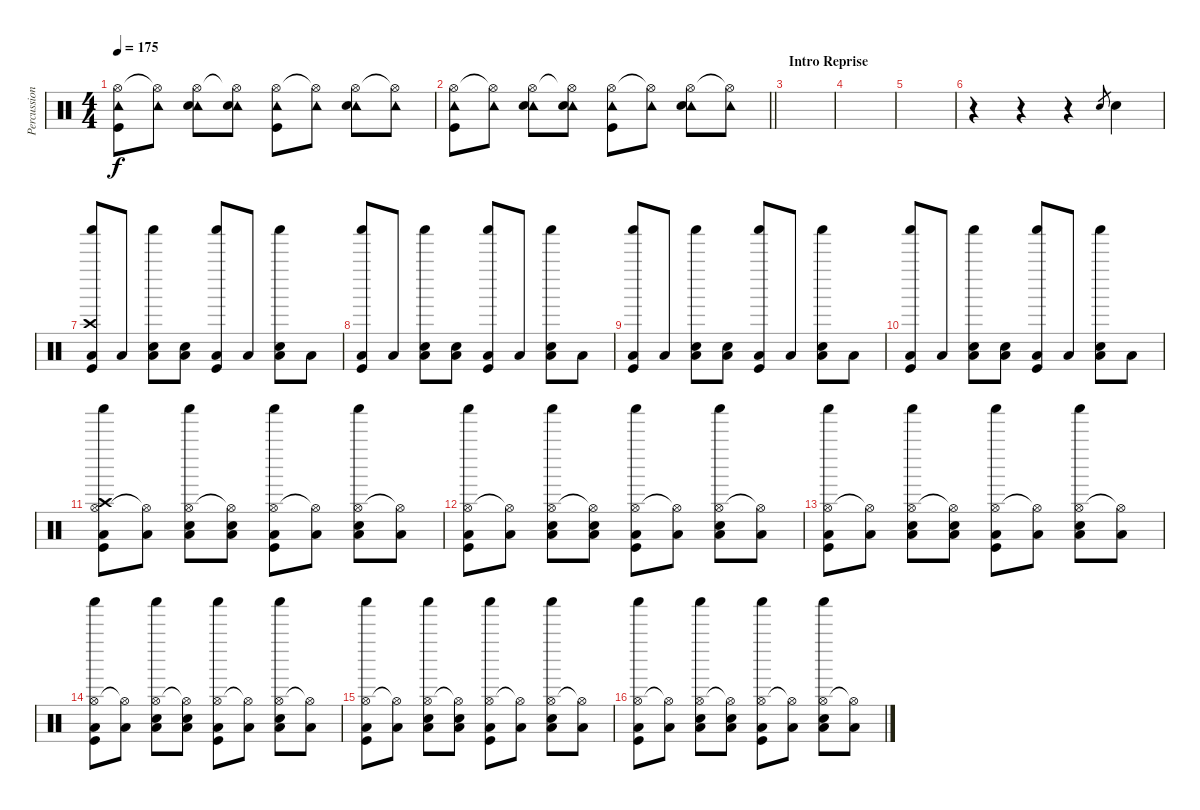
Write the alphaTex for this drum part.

\track ("Percussion" "Percussion") {instrument percussion}
\staff {score}
\articulation defaults
\ts (4 4)
\tempo 175
\clef neutral
\ks c
("Hi-Hat (open)" "Tambourine (hit)" "Kick (hit)").8{dy f} ("Hi-Hat (open)"{t} "Tambourine (hit)").8 ("Hi-Hat (open)" "Tambourine (hit)" "Snare (hit) 2").8 ("Hi-Hat (open)"{t} "Tambourine (hit)" "Snare (hit) 2").8 ("Hi-Hat (open)" "Tambourine (hit)" "Kick (hit)").8 ("Hi-Hat (open)"{t} "Tambourine (hit)").8 ("Hi-Hat (open)" "Tambourine (hit)" "Snare (hit) 2").8 ("Hi-Hat (open)"{t} "Tambourine (hit)").8 |
\barLineRight lightlight
("Hi-Hat (open)" "Tambourine (hit)" "Kick (hit)").8 ("Hi-Hat (open)"{t} "Tambourine (hit)").8 ("Hi-Hat (open)" "Tambourine (hit)" "Snare (hit) 2").8 ("Hi-Hat (open)"{t} "Tambourine (hit)" "Snare (hit) 2").8 ("Hi-Hat (open)" "Tambourine (hit)" "Kick (hit)").8 ("Hi-Hat (open)"{t} "Tambourine (hit)").8 ("Hi-Hat (open)" "Tambourine (hit)" "Snare (hit) 2").8 ("Hi-Hat (open)"{t} "Tambourine (hit)").8 |
\section ("" "Intro Reprise")
|
|
|
r.4 r.4 r.4 "Snare (hit) 2".8{gr} "Snare (hit) 2".4 |
("Crash high (hit)" "Shaker (hit)" "Low Floor Tom (hit)" "Kick (hit)").8 "Low Floor Tom (hit)".8 ("Shaker (hit)" "Snare (hit) 2" "Low Floor Tom (hit)").8 ("Snare (hit) 2" "Low Floor Tom (hit)").8 ("Shaker (hit)" "Low Floor Tom (hit)" "Kick (hit)").8 "Low Floor Tom (hit)".8 ("Shaker (hit)" "Snare (hit) 2" "Low Floor Tom (hit)").8 "Low Floor Tom (hit)".8 |
("Shaker (hit)" "Low Floor Tom (hit)" "Kick (hit)").8 "Low Floor Tom (hit)".8 ("Shaker (hit)" "Snare (hit) 2" "Low Floor Tom (hit)").8 ("Snare (hit) 2" "Low Floor Tom (hit)").8 ("Shaker (hit)" "Low Floor Tom (hit)" "Kick (hit)").8 "Low Floor Tom (hit)".8 ("Shaker (hit)" "Snare (hit) 2" "Low Floor Tom (hit)").8 "Low Floor Tom (hit)".8 |
("Shaker (hit)" "Low Floor Tom (hit)" "Kick (hit)").8 "Low Floor Tom (hit)".8 ("Shaker (hit)" "Snare (hit) 2" "Low Floor Tom (hit)").8 ("Snare (hit) 2" "Low Floor Tom (hit)").8 ("Shaker (hit)" "Low Floor Tom (hit)" "Kick (hit)").8 "Low Floor Tom (hit)".8 ("Shaker (hit)" "Snare (hit) 2" "Low Floor Tom (hit)").8 "Low Floor Tom (hit)".8 |
("Shaker (hit)" "Low Floor Tom (hit)" "Kick (hit)").8 "Low Floor Tom (hit)".8 ("Shaker (hit)" "Snare (hit) 2" "Low Floor Tom (hit)").8 ("Snare (hit) 2" "Low Floor Tom (hit)").8 ("Shaker (hit)" "Low Floor Tom (hit)" "Kick (hit)").8 "Low Floor Tom (hit)".8 ("Shaker (hit)" "Snare (hit) 2" "Low Floor Tom (hit)").8 "Low Floor Tom (hit)".8 |
("Hi-Hat (open)" "Shaker (hit)" "Crash high (hit)" "Low Floor Tom (hit)" "Kick (hit)").8 ("Hi-Hat (open)"{t} "Low Floor Tom (hit)").8 ("Hi-Hat (open)" "Shaker (hit)" "Snare (hit) 2" "Low Floor Tom (hit)").8 ("Hi-Hat (open)"{t} "Snare (hit) 2" "Low Floor Tom (hit)").8 ("Hi-Hat (open)" "Shaker (hit)" "Low Floor Tom (hit)" "Kick (hit)").8 ("Hi-Hat (open)"{t} "Low Floor Tom (hit)").8 ("Hi-Hat (open)" "Shaker (hit)" "Snare (hit) 2" "Low Floor Tom (hit)").8 ("Hi-Hat (open)"{t} "Low Floor Tom (hit)").8 |
("Hi-Hat (open)" "Shaker (hit)" "Low Floor Tom (hit)" "Kick (hit)").8 ("Hi-Hat (open)"{t} "Low Floor Tom (hit)").8 ("Hi-Hat (open)" "Shaker (hit)" "Snare (hit) 2" "Low Floor Tom (hit)").8 ("Hi-Hat (open)"{t} "Snare (hit) 2" "Low Floor Tom (hit)").8 ("Hi-Hat (open)" "Shaker (hit)" "Low Floor Tom (hit)" "Kick (hit)").8 ("Hi-Hat (open)"{t} "Low Floor Tom (hit)").8 ("Hi-Hat (open)" "Shaker (hit)" "Snare (hit) 2" "Low Floor Tom (hit)").8 ("Hi-Hat (open)"{t} "Low Floor Tom (hit)").8 |
("Hi-Hat (open)" "Shaker (hit)" "Low Floor Tom (hit)" "Kick (hit)").8 ("Hi-Hat (open)"{t} "Low Floor Tom (hit)").8 ("Hi-Hat (open)" "Shaker (hit)" "Snare (hit) 2" "Low Floor Tom (hit)").8 ("Hi-Hat (open)"{t} "Snare (hit) 2" "Low Floor Tom (hit)").8 ("Hi-Hat (open)" "Shaker (hit)" "Low Floor Tom (hit)" "Kick (hit)").8 ("Hi-Hat (open)"{t} "Low Floor Tom (hit)").8 ("Hi-Hat (open)" "Shaker (hit)" "Snare (hit) 2" "Low Floor Tom (hit)").8 ("Hi-Hat (open)"{t} "Low Floor Tom (hit)").8 |
("Hi-Hat (open)" "Shaker (hit)" "Low Floor Tom (hit)" "Kick (hit)").8 ("Hi-Hat (open)"{t} "Low Floor Tom (hit)").8 ("Hi-Hat (open)" "Shaker (hit)" "Snare (hit) 2" "Low Floor Tom (hit)").8 ("Hi-Hat (open)"{t} "Snare (hit) 2" "Low Floor Tom (hit)").8 ("Hi-Hat (open)" "Shaker (hit)" "Low Floor Tom (hit)" "Kick (hit)").8 ("Hi-Hat (open)"{t} "Low Floor Tom (hit)").8 ("Hi-Hat (open)" "Shaker (hit)" "Snare (hit) 2" "Low Floor Tom (hit)").8 ("Hi-Hat (open)"{t} "Low Floor Tom (hit)").8 |
("Hi-Hat (open)" "Shaker (hit)" "Low Floor Tom (hit)" "Kick (hit)").8 ("Hi-Hat (open)"{t} "Low Floor Tom (hit)").8 ("Hi-Hat (open)" "Shaker (hit)" "Snare (hit) 2" "Low Floor Tom (hit)").8 ("Hi-Hat (open)"{t} "Snare (hit) 2" "Low Floor Tom (hit)").8 ("Hi-Hat (open)" "Shaker (hit)" "Low Floor Tom (hit)" "Kick (hit)").8 ("Hi-Hat (open)"{t} "Low Floor Tom (hit)").8 ("Hi-Hat (open)" "Shaker (hit)" "Snare (hit) 2" "Low Floor Tom (hit)").8 ("Hi-Hat (open)"{t} "Low Floor Tom (hit)").8 |
("Hi-Hat (open)" "Shaker (hit)" "Low Floor Tom (hit)" "Kick (hit)").8 ("Hi-Hat (open)"{t} "Low Floor Tom (hit)").8 ("Hi-Hat (open)" "Shaker (hit)" "Snare (hit) 2" "Low Floor Tom (hit)").8 ("Hi-Hat (open)"{t} "Snare (hit) 2" "Low Floor Tom (hit)").8 ("Hi-Hat (open)" "Shaker (hit)" "Low Floor Tom (hit)" "Kick (hit)").8 ("Hi-Hat (open)"{t} "Low Floor Tom (hit)").8 ("Hi-Hat (open)" "Shaker (hit)" "Snare (hit) 2" "Low Floor Tom (hit)").8 ("Hi-Hat (open)"{t} "Low Floor Tom (hit)").8
